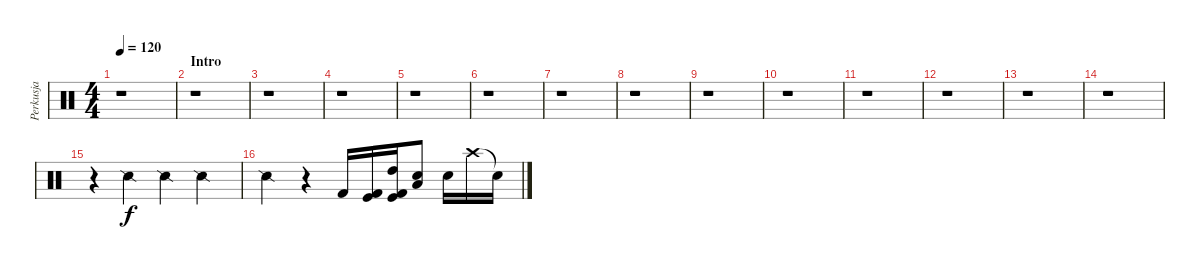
\track ("Perkusja" "Perkusja") {instrument percussion}
\staff {score}
\articulation defaults
\ts (4 4)
\tempo 120
\clef neutral
\ks c
r.1{dy f} |
\section ("" "Intro")
r.1 |
r.1 |
r.1 |
r.1 |
r.1 |
r.1 |
r.1 |
r.1 |
r.1 |
r.1 |
r.1 |
r.1 |
r.1 |
r.4 "Snare (side stick) 2".4 "Snare (side stick) 2".4 "Snare (side stick) 2".4 |
"Snare (side stick) 2".4 r.4 "Kick (hit) 2".16 ("Kick (hit) 2" "Kick (hit)").16 ("Kick (hit) 2" "Kick (hit)" "High Tom (hit)").16 ("Snare (hit) 2" "Low Tom (hit)").8 "Snare (hit) 2".16 "Crash high (hit)".16 "Snare (hit)"{t}.16
